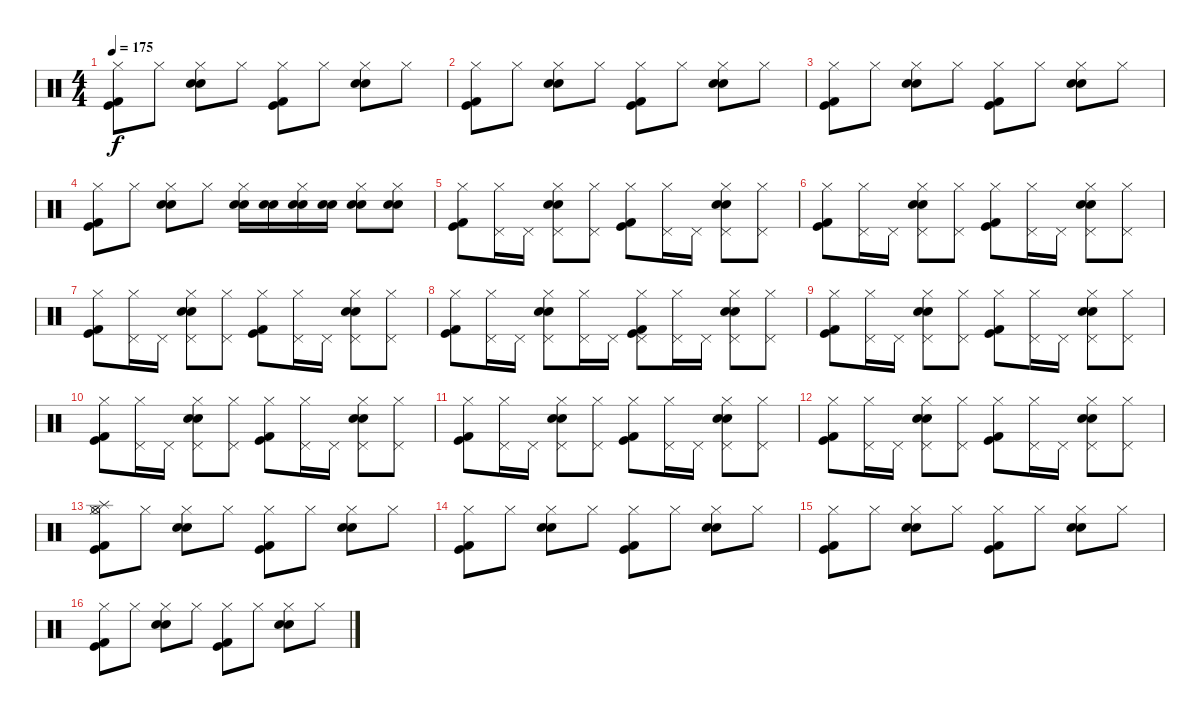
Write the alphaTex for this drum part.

\track "" {instrument percussion}
\staff {score}
\articulation defaults
\ts (4 4)
\tempo 175
\clef neutral
\ks c
("Hi-Hat (closed)" "Kick (hit)" "Kick (hit) 2").8{dy f} "Hi-Hat (closed)".8 ("Electric Snare (hit)" "Snare (hit) 2" "Hi-Hat (closed)").8 "Hi-Hat (closed)".8 ("Hi-Hat (closed)" "Kick (hit)" "Kick (hit) 2").8 "Hi-Hat (closed)".8 ("Electric Snare (hit)" "Snare (hit) 2" "Hi-Hat (closed)").8 "Hi-Hat (closed)".8 |
("Hi-Hat (closed)" "Kick (hit)" "Kick (hit) 2").8 "Hi-Hat (closed)".8 ("Electric Snare (hit)" "Snare (hit) 2" "Hi-Hat (closed)").8 "Hi-Hat (closed)".8 ("Hi-Hat (closed)" "Kick (hit)" "Kick (hit) 2").8 "Hi-Hat (closed)".8 ("Electric Snare (hit)" "Snare (hit) 2" "Hi-Hat (closed)").8 "Hi-Hat (closed)".8 |
("Hi-Hat (closed)" "Kick (hit)" "Kick (hit) 2").8 "Hi-Hat (closed)".8 ("Electric Snare (hit)" "Snare (hit) 2" "Hi-Hat (closed)").8 "Hi-Hat (closed)".8 ("Hi-Hat (closed)" "Kick (hit)" "Kick (hit) 2").8 "Hi-Hat (closed)".8 ("Electric Snare (hit)" "Snare (hit) 2" "Hi-Hat (closed)").8 "Hi-Hat (closed)".8 |
("Hi-Hat (closed)" "Kick (hit)" "Kick (hit) 2").8 "Hi-Hat (closed)".8 ("Electric Snare (hit)" "Snare (hit) 2" "Hi-Hat (closed)").8 "Hi-Hat (closed)".8 ("Hi-Hat (closed)" "Electric Snare (hit)" "Snare (hit) 2").16 ("Snare (hit) 2" "Electric Snare (hit)").16 ("Snare (hit) 2" "Electric Snare (hit)" "Hi-Hat (closed)").16 ("Snare (hit) 2" "Electric Snare (hit)").16 ("Hi-Hat (closed)" "Snare (hit) 2" "Electric Snare (hit)").8 ("Hi-Hat (closed)" "Electric Snare (hit)" "Snare (hit) 2").8 |
("Kick (hit) 2" "Kick (hit)" "Hi-Hat (closed)").8 ("Pedal Hi-Hat (hit)" "Hi-Hat (closed)").16 "Pedal Hi-Hat (hit)".16 ("Electric Snare (hit)" "Snare (hit) 2" "Hi-Hat (closed)" "Pedal Hi-Hat (hit)").8 ("Pedal Hi-Hat (hit)" "Hi-Hat (closed)").8 ("Hi-Hat (closed)" "Kick (hit)" "Kick (hit) 2").8 ("Pedal Hi-Hat (hit)" "Hi-Hat (closed)").16 "Pedal Hi-Hat (hit)".16 ("Electric Snare (hit)" "Snare (hit) 2" "Hi-Hat (closed)" "Pedal Hi-Hat (hit)").8 ("Pedal Hi-Hat (hit)" "Hi-Hat (closed)").8 |
("Hi-Hat (closed)" "Kick (hit)" "Kick (hit) 2").8 ("Pedal Hi-Hat (hit)" "Hi-Hat (closed)").16 "Pedal Hi-Hat (hit)".16 ("Electric Snare (hit)" "Snare (hit) 2" "Hi-Hat (closed)" "Pedal Hi-Hat (hit)").8 ("Pedal Hi-Hat (hit)" "Hi-Hat (closed)").8 ("Hi-Hat (closed)" "Kick (hit)" "Kick (hit) 2").8 ("Pedal Hi-Hat (hit)" "Hi-Hat (closed)").16 "Pedal Hi-Hat (hit)".16 ("Electric Snare (hit)" "Snare (hit) 2" "Hi-Hat (closed)" "Pedal Hi-Hat (hit)").8 ("Pedal Hi-Hat (hit)" "Hi-Hat (closed)").8 |
("Kick (hit) 2" "Kick (hit)" "Hi-Hat (closed)").8 ("Pedal Hi-Hat (hit)" "Hi-Hat (closed)").16 "Pedal Hi-Hat (hit)".16 ("Electric Snare (hit)" "Snare (hit) 2" "Hi-Hat (closed)" "Pedal Hi-Hat (hit)").8 ("Pedal Hi-Hat (hit)" "Hi-Hat (closed)").8 ("Hi-Hat (closed)" "Kick (hit)" "Kick (hit) 2").8 ("Pedal Hi-Hat (hit)" "Hi-Hat (closed)").16 "Pedal Hi-Hat (hit)".16 ("Electric Snare (hit)" "Snare (hit) 2" "Hi-Hat (closed)" "Pedal Hi-Hat (hit)").8 ("Pedal Hi-Hat (hit)" "Hi-Hat (closed)").8 |
("Hi-Hat (closed)" "Kick (hit)" "Kick (hit) 2").8 ("Pedal Hi-Hat (hit)" "Hi-Hat (closed)").16 "Pedal Hi-Hat (hit)".16 ("Electric Snare (hit)" "Snare (hit) 2" "Hi-Hat (closed)" "Pedal Hi-Hat (hit)").8 ("Pedal Hi-Hat (hit)" "Hi-Hat (closed)").16 "Pedal Hi-Hat (hit)".16 ("Hi-Hat (closed)" "Kick (hit)" "Kick (hit) 2" "Pedal Hi-Hat (hit)").8 ("Pedal Hi-Hat (hit)" "Hi-Hat (closed)").16 "Pedal Hi-Hat (hit)".16 ("Electric Snare (hit)" "Snare (hit) 2" "Hi-Hat (closed)" "Pedal Hi-Hat (hit)").8 ("Pedal Hi-Hat (hit)" "Hi-Hat (closed)").8 |
("Hi-Hat (closed)" "Kick (hit)" "Kick (hit) 2").8 ("Pedal Hi-Hat (hit)" "Hi-Hat (closed)").16 "Pedal Hi-Hat (hit)".16 ("Electric Snare (hit)" "Snare (hit) 2" "Hi-Hat (closed)" "Pedal Hi-Hat (hit)").8 ("Pedal Hi-Hat (hit)" "Hi-Hat (closed)").8 ("Hi-Hat (closed)" "Kick (hit)" "Kick (hit) 2").8 ("Pedal Hi-Hat (hit)" "Hi-Hat (closed)").16 "Pedal Hi-Hat (hit)".16 ("Electric Snare (hit)" "Snare (hit) 2" "Hi-Hat (closed)" "Pedal Hi-Hat (hit)").8 ("Pedal Hi-Hat (hit)" "Hi-Hat (closed)").8 |
("Hi-Hat (closed)" "Kick (hit)" "Kick (hit) 2").8 ("Pedal Hi-Hat (hit)" "Hi-Hat (closed)").16 "Pedal Hi-Hat (hit)".16 ("Electric Snare (hit)" "Snare (hit) 2" "Hi-Hat (closed)" "Pedal Hi-Hat (hit)").8 ("Pedal Hi-Hat (hit)" "Hi-Hat (closed)").8 ("Hi-Hat (closed)" "Kick (hit)" "Kick (hit) 2").8 ("Pedal Hi-Hat (hit)" "Hi-Hat (closed)").16 "Pedal Hi-Hat (hit)".16 ("Electric Snare (hit)" "Snare (hit) 2" "Hi-Hat (closed)" "Pedal Hi-Hat (hit)").8 ("Pedal Hi-Hat (hit)" "Hi-Hat (closed)").8 |
("Hi-Hat (closed)" "Kick (hit)" "Kick (hit) 2").8 ("Pedal Hi-Hat (hit)" "Hi-Hat (closed)").16 "Pedal Hi-Hat (hit)".16 ("Electric Snare (hit)" "Snare (hit) 2" "Hi-Hat (closed)" "Pedal Hi-Hat (hit)").8 ("Pedal Hi-Hat (hit)" "Hi-Hat (closed)").8 ("Hi-Hat (closed)" "Kick (hit)" "Kick (hit) 2").8 ("Pedal Hi-Hat (hit)" "Hi-Hat (closed)").16 "Pedal Hi-Hat (hit)".16 ("Electric Snare (hit)" "Snare (hit) 2" "Hi-Hat (closed)" "Pedal Hi-Hat (hit)").8 ("Pedal Hi-Hat (hit)" "Hi-Hat (closed)").8 |
("Hi-Hat (closed)" "Kick (hit)" "Kick (hit) 2").8 ("Pedal Hi-Hat (hit)" "Hi-Hat (closed)").16 "Pedal Hi-Hat (hit)".16 ("Electric Snare (hit)" "Snare (hit) 2" "Hi-Hat (closed)" "Pedal Hi-Hat (hit)").8 ("Pedal Hi-Hat (hit)" "Hi-Hat (closed)").8 ("Hi-Hat (closed)" "Kick (hit)" "Kick (hit) 2").8 ("Pedal Hi-Hat (hit)" "Hi-Hat (closed)").16 "Pedal Hi-Hat (hit)".16 ("Electric Snare (hit)" "Snare (hit) 2" "Hi-Hat (closed)" "Pedal Hi-Hat (hit)").8 ("Pedal Hi-Hat (hit)" "Hi-Hat (closed)").8 |
("Hi-Hat (open)" "Splash (hit)" "Hi-Hat (closed)" "Kick (hit)" "Kick (hit) 2").8 "Hi-Hat (closed)".8 ("Electric Snare (hit)" "Snare (hit) 2" "Hi-Hat (closed)").8 "Hi-Hat (closed)".8 ("Hi-Hat (closed)" "Kick (hit)" "Kick (hit) 2").8 "Hi-Hat (closed)".8 ("Electric Snare (hit)" "Snare (hit) 2" "Hi-Hat (closed)").8 "Hi-Hat (closed)".8 |
("Hi-Hat (closed)" "Kick (hit)" "Kick (hit) 2").8 "Hi-Hat (closed)".8 ("Electric Snare (hit)" "Snare (hit) 2" "Hi-Hat (closed)").8 "Hi-Hat (closed)".8 ("Hi-Hat (closed)" "Kick (hit)" "Kick (hit) 2").8 "Hi-Hat (closed)".8 ("Electric Snare (hit)" "Snare (hit) 2" "Hi-Hat (closed)").8 "Hi-Hat (closed)".8 |
("Hi-Hat (closed)" "Kick (hit)" "Kick (hit) 2").8 "Hi-Hat (closed)".8 ("Electric Snare (hit)" "Snare (hit) 2" "Hi-Hat (closed)").8 "Hi-Hat (closed)".8 ("Hi-Hat (closed)" "Kick (hit)" "Kick (hit) 2").8 "Hi-Hat (closed)".8 ("Electric Snare (hit)" "Snare (hit) 2" "Hi-Hat (closed)").8 "Hi-Hat (closed)".8 |
("Hi-Hat (closed)" "Kick (hit)" "Kick (hit) 2").8 "Hi-Hat (closed)".8 ("Electric Snare (hit)" "Snare (hit) 2" "Hi-Hat (closed)").8 "Hi-Hat (closed)".8 ("Hi-Hat (closed)" "Kick (hit)" "Kick (hit) 2").8 "Hi-Hat (closed)".8 ("Electric Snare (hit)" "Snare (hit) 2" "Hi-Hat (closed)").8 "Hi-Hat (closed)".8
